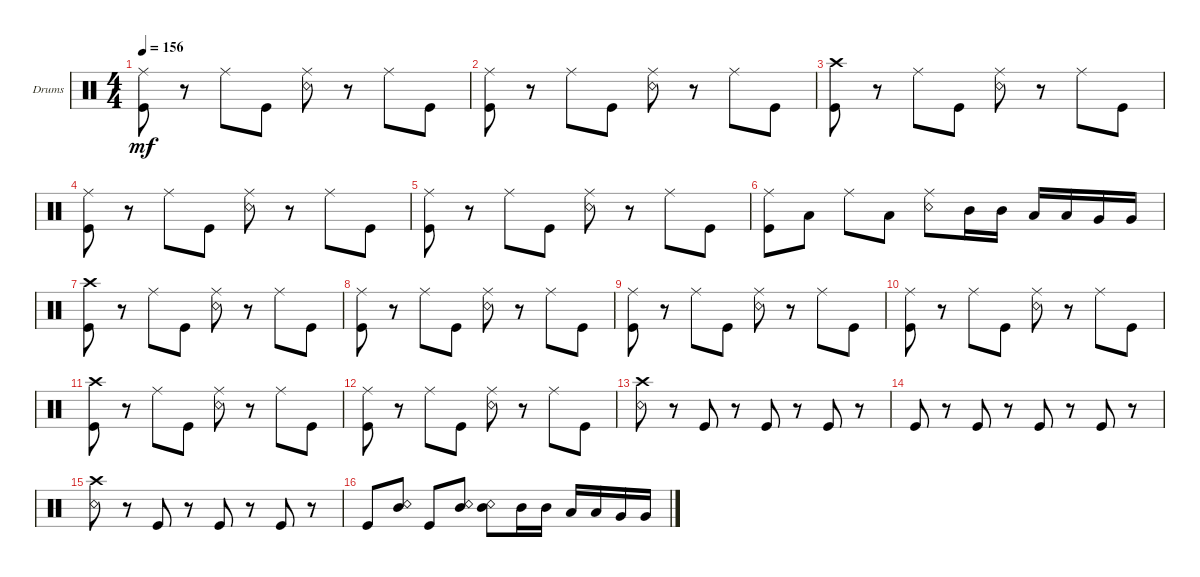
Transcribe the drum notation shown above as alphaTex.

\defaultSystemsLayout 4
\bracketExtendMode groupsimilarinstruments
\firstSystemTrackNameOrientation horizontal
\otherSystemsTrackNameOrientation horizontal
\track ("Drumkit" "Drums") {instrument percussion}
\staff {score}
\articulation defaults
\ts (4 4)
\tempo 156
\clef neutral
\ks c
("Kick (hit)" "Ride (middle)").8{dy mf} r.8 "Ride (middle)".8 "Kick (hit)".8 ("Ride (middle)" "Snare (rim shot)").8 r.8 "Ride (middle)".8 "Kick (hit)".8 |
("Kick (hit)" "Ride (middle)").8 r.8 "Ride (middle)".8 "Kick (hit)".8 ("Ride (middle)" "Snare (rim shot)").8 r.8 "Ride (middle)".8 "Kick (hit)".8 |
("Crash high (hit)" "Kick (hit)").8 r.8 "Ride (middle)".8 "Kick (hit)".8 ("Ride (middle)" "Snare (rim shot)").8 r.8 "Ride (middle)".8 "Kick (hit)".8 |
("Kick (hit)" "Ride (middle)").8 r.8 "Ride (middle)".8 "Kick (hit)".8 ("Ride (middle)" "Snare (rim shot)").8 r.8 "Ride (middle)".8 "Kick (hit)".8 |
("Kick (hit)" "Ride (middle)").8 r.8 "Ride (middle)".8 "Kick (hit)".8 ("Ride (middle)" "Snare (rim shot)").8 r.8 "Ride (middle)".8 "Kick (hit)".8 |
("Kick (hit)" "Ride (middle)").8 "Low Tom (hit)".8 "Ride (middle)".8 "Low Tom (hit)".8 ("Ride (middle)" "Snare (rim shot)").8 "Mid Tom (hit)".16 "Mid Tom (hit)".16 "Low Tom (hit)".16 "Low Tom (hit)".16 "Very Low Tom (hit)".16 "Very Low Tom (hit)".16 |
("Crash high (hit)" "Kick (hit)").8 r.8 "Ride (middle)".8 "Kick (hit)".8 ("Ride (middle)" "Snare (rim shot)").8 r.8 "Ride (middle)".8 "Kick (hit)".8 |
("Kick (hit)" "Ride (middle)").8 r.8 "Ride (middle)".8 "Kick (hit)".8 ("Ride (middle)" "Snare (rim shot)").8 r.8 "Ride (middle)".8 "Kick (hit)".8 |
("Kick (hit)" "Ride (middle)").8 r.8 "Ride (middle)".8 "Kick (hit)".8 ("Ride (middle)" "Snare (rim shot)").8 r.8 "Ride (middle)".8 "Kick (hit)".8 |
("Kick (hit)" "Ride (middle)").8 r.8 "Ride (middle)".8 "Kick (hit)".8 ("Ride (middle)" "Snare (rim shot)").8 r.8 "Ride (middle)".8 "Kick (hit)".8 |
("Crash high (hit)" "Kick (hit)").8 r.8 "Ride (middle)".8 "Kick (hit)".8 ("Ride (middle)" "Snare (rim shot)").8 r.8 "Ride (middle)".8 "Kick (hit)".8 |
("Kick (hit)" "Ride (middle)").8 r.8 "Ride (middle)".8 "Kick (hit)".8 ("Ride (middle)" "Snare (rim shot)").8 r.8 "Ride (middle)".8 "Kick (hit)".8 |
("Snare (rim shot)" "Crash high (hit)").8 r.8 "Kick (hit)".8 r.8 "Kick (hit)".8 r.8 "Kick (hit)".8 r.8 |
"Kick (hit)".8 r.8 "Kick (hit)".8 r.8 "Kick (hit)".8 r.8 "Kick (hit)".8 r.8 |
("Snare (rim shot)" "Crash high (hit)").8 r.8 "Kick (hit)".8 r.8 "Kick (hit)".8 r.8 "Kick (hit)".8 r.8 |
"Kick (hit)".8 ("Snare (rim shot)" "Mid Tom (hit)").8 "Kick (hit)".8 ("Snare (rim shot)" "Mid Tom (hit)").8 ("Snare (rim shot)" "Mid Tom (hit)").8 "Mid Tom (hit)".16 "Mid Tom (hit)".16 "Low Tom (hit)".16 "Low Tom (hit)".16 "Very Low Tom (hit)".16 "Very Low Tom (hit)".16
